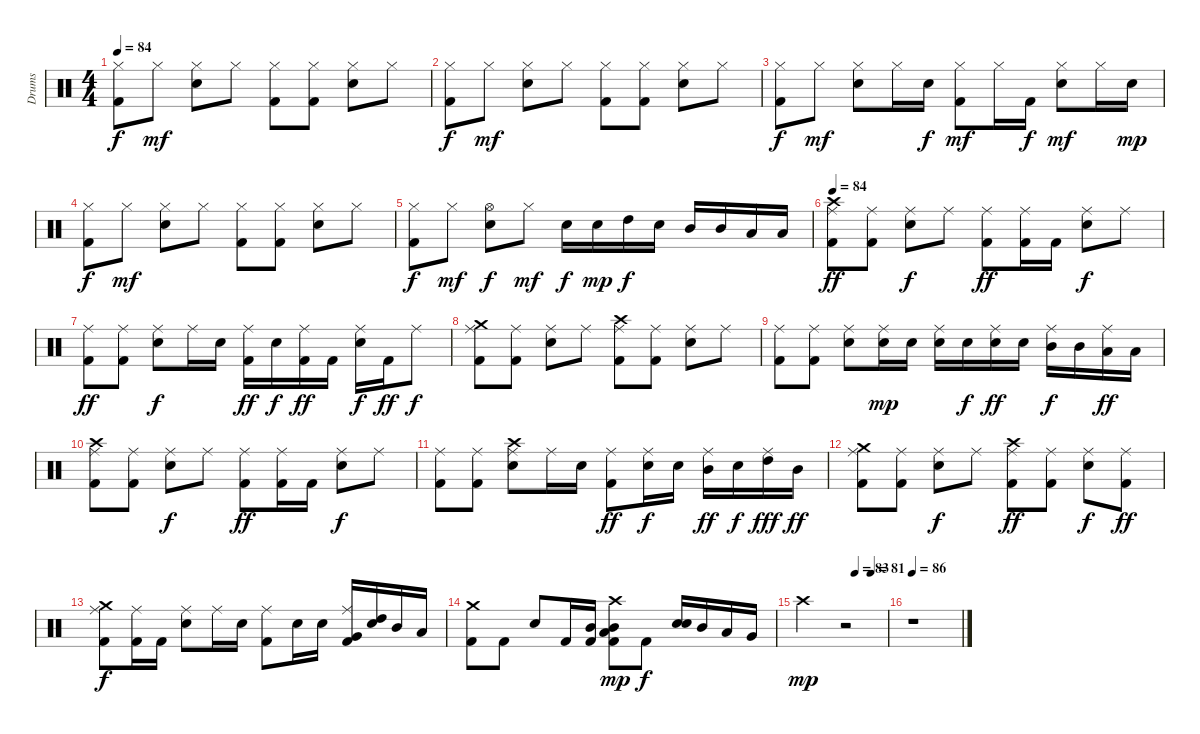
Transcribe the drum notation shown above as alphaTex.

\track ("Drums" "Drums") {instrument percussion}
\staff {score}
\articulation defaults
\ts (4 4)
\tempo 84
\clef neutral
\ks c
("Hi-Hat (closed)" "Kick (hit) 2").8{dy f} "Hi-Hat (closed)".8{dy mf} ("Hi-Hat (closed)" "Electric Snare (hit)").8 "Hi-Hat (closed)".8 ("Hi-Hat (closed)" "Kick (hit) 2").8 ("Hi-Hat (closed)" "Kick (hit) 2").8 ("Hi-Hat (closed)" "Electric Snare (hit)").8 "Hi-Hat (closed)".8 |
("Hi-Hat (closed)" "Kick (hit) 2").8{dy f} "Hi-Hat (closed)".8{dy mf} ("Hi-Hat (closed)" "Electric Snare (hit)").8 "Hi-Hat (closed)".8 ("Hi-Hat (closed)" "Kick (hit) 2").8 ("Hi-Hat (closed)" "Kick (hit) 2").8 ("Hi-Hat (closed)" "Electric Snare (hit)").8 "Hi-Hat (closed)".8 |
("Hi-Hat (closed)" "Kick (hit) 2").8{dy f} "Hi-Hat (closed)".8{dy mf} ("Hi-Hat (closed)" "Electric Snare (hit)").8 "Hi-Hat (closed)".16 "Electric Snare (hit)".16{dy f} ("Hi-Hat (closed)" "Kick (hit) 2").8{dy mf} "Hi-Hat (closed)".16 "Kick (hit) 2".16{dy f} ("Hi-Hat (closed)" "Electric Snare (hit)").8{dy mf} "Hi-Hat (closed)".16 "Electric Snare (hit)".16{dy mp} |
("Hi-Hat (closed)" "Kick (hit) 2").8{dy f} "Hi-Hat (closed)".8{dy mf} ("Hi-Hat (closed)" "Electric Snare (hit)").8 "Hi-Hat (closed)".8 ("Hi-Hat (closed)" "Kick (hit) 2").8 ("Hi-Hat (closed)" "Kick (hit) 2").8 ("Hi-Hat (closed)" "Electric Snare (hit)").8 "Hi-Hat (closed)".8 |
("Kick (hit) 2" "Hi-Hat (closed)").8{dy f} "Hi-Hat (closed)".8{dy mf} ("Electric Snare (hit)" "Hi-Hat (open)").8{dy f} "Hi-Hat (closed)".8{dy mf} "Electric Snare (hit)".16{dy f volume 12} "Electric Snare (hit)".16{dy mp} "High Tom (hit)".16{dy f} "Electric Snare (hit)".16 "Mid Tom (hit)".16 "Mid Tom (hit)".16 "Low Tom (hit)".16 "Low Tom (hit)".16 |
\tempo 84
("Ride (middle)" "Crash high (hit)" "Kick (hit) 2").8{dy ff volume 12} ("Ride (middle)" "Kick (hit) 2").8 ("Ride (middle)" "Electric Snare (hit)").8{dy f} "Ride (middle)".8 ("Ride (middle)" "Kick (hit) 2").8{dy ff} ("Ride (middle)" "Kick (hit) 2").16 "Kick (hit) 2".16 ("Ride (middle)" "Electric Snare (hit)").8{dy f} "Ride (middle)".8 |
("Ride (middle)" "Kick (hit) 2").8{dy ff} ("Ride (middle)" "Kick (hit) 2").8 ("Ride (middle)" "Electric Snare (hit)").8{dy f} "Ride (middle)".16 "Electric Snare (hit)".16 ("Ride (middle)" "Kick (hit) 2").16{dy ff} "Electric Snare (hit)".16{dy f} ("Ride (middle)" "Kick (hit) 2").16{dy ff} "Kick (hit) 2".16 ("Ride (middle)" "Electric Snare (hit)").16{dy f} "Kick (hit) 2".16{dy ff} "Ride (middle)".8{dy f} |
("Ride (middle)" "Kick (hit) 2" "Crash medium (hit)").8 ("Ride (middle)" "Kick (hit) 2").8 ("Ride (middle)" "Electric Snare (hit)").8 "Ride (middle)".8 ("Ride (middle)" "Kick (hit) 2" "Crash high (hit)").8 ("Ride (middle)" "Kick (hit) 2").8 ("Ride (middle)" "Electric Snare (hit)").8 "Ride (middle)".8 |
("Ride (middle)" "Kick (hit) 2").8 ("Ride (middle)" "Kick (hit) 2").8 ("Ride (middle)" "Electric Snare (hit)").8 ("Ride (middle)" "Electric Snare (hit)").16{dy mp} "Electric Snare (hit)".16 ("Ride (middle)" "Electric Snare (hit)").16 "Electric Snare (hit)".16{dy f} ("Ride (middle)" "Electric Snare (hit)").16{dy ff} "Electric Snare (hit)".16 ("Ride (middle)" "Mid Tom (hit)").16{dy f} "Mid Tom (hit)".16 ("Ride (middle)" "Low Tom (hit)").16{dy ff} "Low Tom (hit)".16 |
("Ride (middle)" "Crash high (hit)" "Kick (hit) 2").8 ("Ride (middle)" "Kick (hit) 2").8 ("Ride (middle)" "Electric Snare (hit)").8{dy f} "Ride (middle)".8 ("Ride (middle)" "Kick (hit) 2").8{dy ff} ("Ride (middle)" "Kick (hit) 2").16 "Kick (hit) 2".16 ("Ride (middle)" "Electric Snare (hit)").8{dy f} "Ride (middle)".8 |
("Ride (middle)" "Kick (hit) 2").8 ("Ride (middle)" "Kick (hit) 2").8 ("Ride (middle)" "Electric Snare (hit)" "Crash high (hit)").8 "Ride (middle)".16 "Electric Snare (hit)".16 ("Ride (middle)" "Kick (hit) 2").8{dy ff} ("Ride (middle)" "Electric Snare (hit)").16{dy f} "Electric Snare (hit)".16 ("Ride (middle)" "Mid Tom (hit)").16{dy ff} "Electric Snare (hit)".16{dy f} ("Ride (middle)" "High Tom (hit)").16{dy fff} "Mid Tom (hit)".16{dy ff} |
("Ride (middle)" "Kick (hit) 2" "Crash medium (hit)").8 ("Ride (middle)" "Kick (hit) 2").8 ("Ride (middle)" "Electric Snare (hit)").8{dy f} "Ride (middle)".8 ("Ride (middle)" "Kick (hit) 2" "Crash high (hit)").8{dy ff} ("Ride (middle)" "Kick (hit) 2").8 ("Ride (middle)" "Electric Snare (hit)").8{dy f} ("Ride (middle)" "Kick (hit) 2").8{dy ff} |
("Ride (middle)" "Crash medium (hit)" "Kick (hit) 2").8{dy f} ("Ride (middle)" "Kick (hit) 2").16 "Kick (hit) 2".16 ("Ride (middle)" "Electric Snare (hit)").8 "Ride (middle)".16 "Electric Snare (hit)".16 ("Kick (hit) 2" "Ride (middle)").8 "Electric Snare (hit)".16 "Electric Snare (hit)".16 ("Kick (hit) 2" "Very Low Tom (hit)" "Ride (middle)").16 ("High Tom (hit)" "Electric Snare (hit)").16 "Mid Tom (hit)".16 "Low Tom (hit)".16 |
("Kick (hit) 2" "Crash medium (hit)").8 "Kick (hit) 2".8 "Electric Snare (hit)".8 "Kick (hit) 2".16 ("Kick (hit) 2" "Mid Tom (hit)").16 ("Kick (hit) 2" "Low Tom (hit)" "Mid Tom (hit)" "Crash high (hit)").8{dy mp} "Kick (hit) 2".8{dy f} ("Electric Snare (hit)" "Electric Snare (hit)").16 "Mid Tom (hit)".16 "Low Tom (hit)".16 "Very Low Tom (hit)".16 |
\tempo (83 0.625)
\tempo (81 0.8125)
"Crash high (hit)".2{dy mp} r.2 |
\tempo 86
r.1
